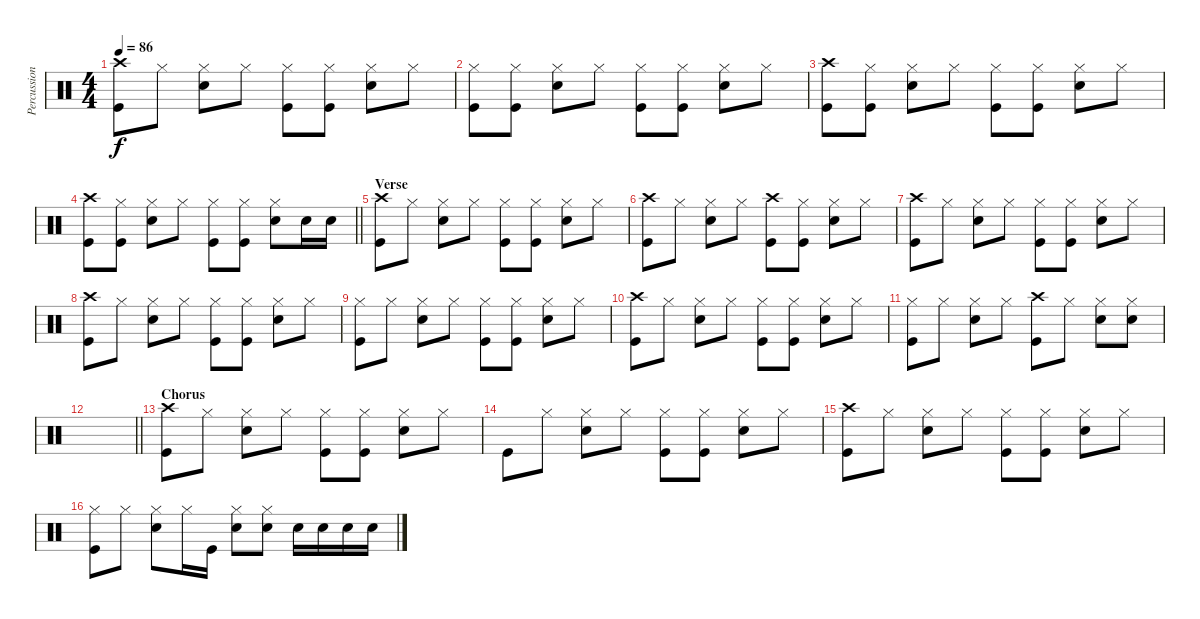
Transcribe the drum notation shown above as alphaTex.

\track ("Percussion" "Percussion") {instrument percussion}
\staff {score}
\articulation defaults
\ts (4 4)
\tempo 86
\clef neutral
\ks c
("Crash high (hit)" "Kick (hit)").8{dy f} "Hi-Hat (closed)".8 ("Hi-Hat (closed)" "Electric Snare (hit)").8 "Hi-Hat (closed)".8 ("Hi-Hat (closed)" "Kick (hit)").8 ("Hi-Hat (closed)" "Kick (hit)").8 ("Hi-Hat (closed)" "Electric Snare (hit)").8 "Hi-Hat (closed)".8 |
("Hi-Hat (closed)" "Kick (hit)").8 ("Hi-Hat (closed)" "Kick (hit)").8 ("Hi-Hat (closed)" "Electric Snare (hit)").8 "Hi-Hat (closed)".8 ("Hi-Hat (closed)" "Kick (hit)").8 ("Hi-Hat (closed)" "Kick (hit)").8 ("Hi-Hat (closed)" "Electric Snare (hit)").8 "Hi-Hat (closed)".8 |
("Crash high (hit)" "Kick (hit)").8 ("Hi-Hat (closed)" "Kick (hit)").8 ("Hi-Hat (closed)" "Electric Snare (hit)").8 "Hi-Hat (closed)".8 ("Hi-Hat (closed)" "Kick (hit)").8 ("Hi-Hat (closed)" "Kick (hit)").8 ("Hi-Hat (closed)" "Electric Snare (hit)").8 "Hi-Hat (closed)".8 |
\barLineRight lightlight
("Crash high (hit)" "Kick (hit)").8 ("Hi-Hat (closed)" "Kick (hit)").8 ("Hi-Hat (closed)" "Electric Snare (hit)").8 "Hi-Hat (closed)".8 ("Hi-Hat (closed)" "Kick (hit)").8 ("Hi-Hat (closed)" "Kick (hit)").8 ("Hi-Hat (closed)" "Electric Snare (hit)").8 "Electric Snare (hit)".16 "Electric Snare (hit)".16 |
\section ("" "Verse")
("Crash high (hit)" "Kick (hit)").8 "Hi-Hat (closed)".8 ("Hi-Hat (closed)" "Electric Snare (hit)").8 "Hi-Hat (closed)".8 ("Hi-Hat (closed)" "Kick (hit)").8 ("Hi-Hat (closed)" "Kick (hit)").8 ("Hi-Hat (closed)" "Electric Snare (hit)").8 "Hi-Hat (closed)".8 |
("Crash high (hit)" "Kick (hit)").8 "Hi-Hat (closed)".8 ("Hi-Hat (closed)" "Electric Snare (hit)").8 "Hi-Hat (closed)".8 ("Crash high (hit)" "Kick (hit)").8 ("Hi-Hat (closed)" "Kick (hit)").8 ("Hi-Hat (closed)" "Electric Snare (hit)").8 "Hi-Hat (closed)".8 |
("Crash high (hit)" "Kick (hit)").8 "Hi-Hat (closed)".8 ("Hi-Hat (closed)" "Electric Snare (hit)").8 "Hi-Hat (closed)".8 ("Hi-Hat (closed)" "Kick (hit)").8 ("Hi-Hat (closed)" "Kick (hit)").8 ("Hi-Hat (closed)" "Electric Snare (hit)").8 "Hi-Hat (closed)".8 |
("Crash high (hit)" "Kick (hit)").8 "Hi-Hat (closed)".8 ("Hi-Hat (closed)" "Electric Snare (hit)").8 "Hi-Hat (closed)".8 ("Hi-Hat (closed)" "Kick (hit)").8 ("Hi-Hat (closed)" "Kick (hit)").8 ("Hi-Hat (closed)" "Electric Snare (hit)").8 "Hi-Hat (closed)".8 |
("Hi-Hat (closed)" "Kick (hit)").8 "Hi-Hat (closed)".8 ("Hi-Hat (closed)" "Electric Snare (hit)").8 "Hi-Hat (closed)".8 ("Hi-Hat (closed)" "Kick (hit)").8 ("Hi-Hat (closed)" "Kick (hit)").8 ("Hi-Hat (closed)" "Electric Snare (hit)").8 "Hi-Hat (closed)".8 |
("Crash high (hit)" "Kick (hit)").8 "Hi-Hat (closed)".8 ("Hi-Hat (closed)" "Electric Snare (hit)").8 "Hi-Hat (closed)".8 ("Hi-Hat (closed)" "Kick (hit)").8 ("Hi-Hat (closed)" "Kick (hit)").8 ("Hi-Hat (closed)" "Electric Snare (hit)").8 "Hi-Hat (closed)".8 |
("Hi-Hat (closed)" "Kick (hit)").8 "Hi-Hat (closed)".8 ("Hi-Hat (closed)" "Electric Snare (hit)").8 "Hi-Hat (closed)".8 ("Crash high (hit)" "Kick (hit)").8 "Hi-Hat (closed)".8 ("Hi-Hat (closed)" "Electric Snare (hit)").8 ("Hi-Hat (closed)" "Electric Snare (hit)").8 |
\barLineRight lightlight
|
\section ("" "Chorus")
("Crash high (hit)" "Kick (hit)").8 "Hi-Hat (closed)".8 ("Hi-Hat (closed)" "Electric Snare (hit)").8 "Hi-Hat (closed)".8 ("Hi-Hat (closed)" "Kick (hit)").8 ("Hi-Hat (closed)" "Kick (hit)").8 ("Hi-Hat (closed)" "Electric Snare (hit)").8 "Hi-Hat (closed)".8 |
"Kick (hit)".8 "Hi-Hat (closed)".8 ("Hi-Hat (closed)" "Electric Snare (hit)").8 "Hi-Hat (closed)".8 ("Hi-Hat (closed)" "Kick (hit)").8 ("Hi-Hat (closed)" "Kick (hit)").8 ("Hi-Hat (closed)" "Electric Snare (hit)").8 "Hi-Hat (closed)".8 |
("Crash high (hit)" "Kick (hit)").8 "Hi-Hat (closed)".8 ("Hi-Hat (closed)" "Electric Snare (hit)").8 "Hi-Hat (closed)".8 ("Hi-Hat (closed)" "Kick (hit)").8 ("Hi-Hat (closed)" "Kick (hit)").8 ("Hi-Hat (closed)" "Electric Snare (hit)").8 "Hi-Hat (closed)".8 |
("Hi-Hat (closed)" "Kick (hit)").8 "Hi-Hat (closed)".8 ("Hi-Hat (closed)" "Electric Snare (hit)").8 "Hi-Hat (closed)".16 "Kick (hit)".16 ("Hi-Hat (closed)" "Electric Snare (hit)").8 ("Hi-Hat (closed)" "Electric Snare (hit)").8 "Electric Snare (hit)".16 "Electric Snare (hit)".16 "Electric Snare (hit)".16 "Electric Snare (hit)".16
